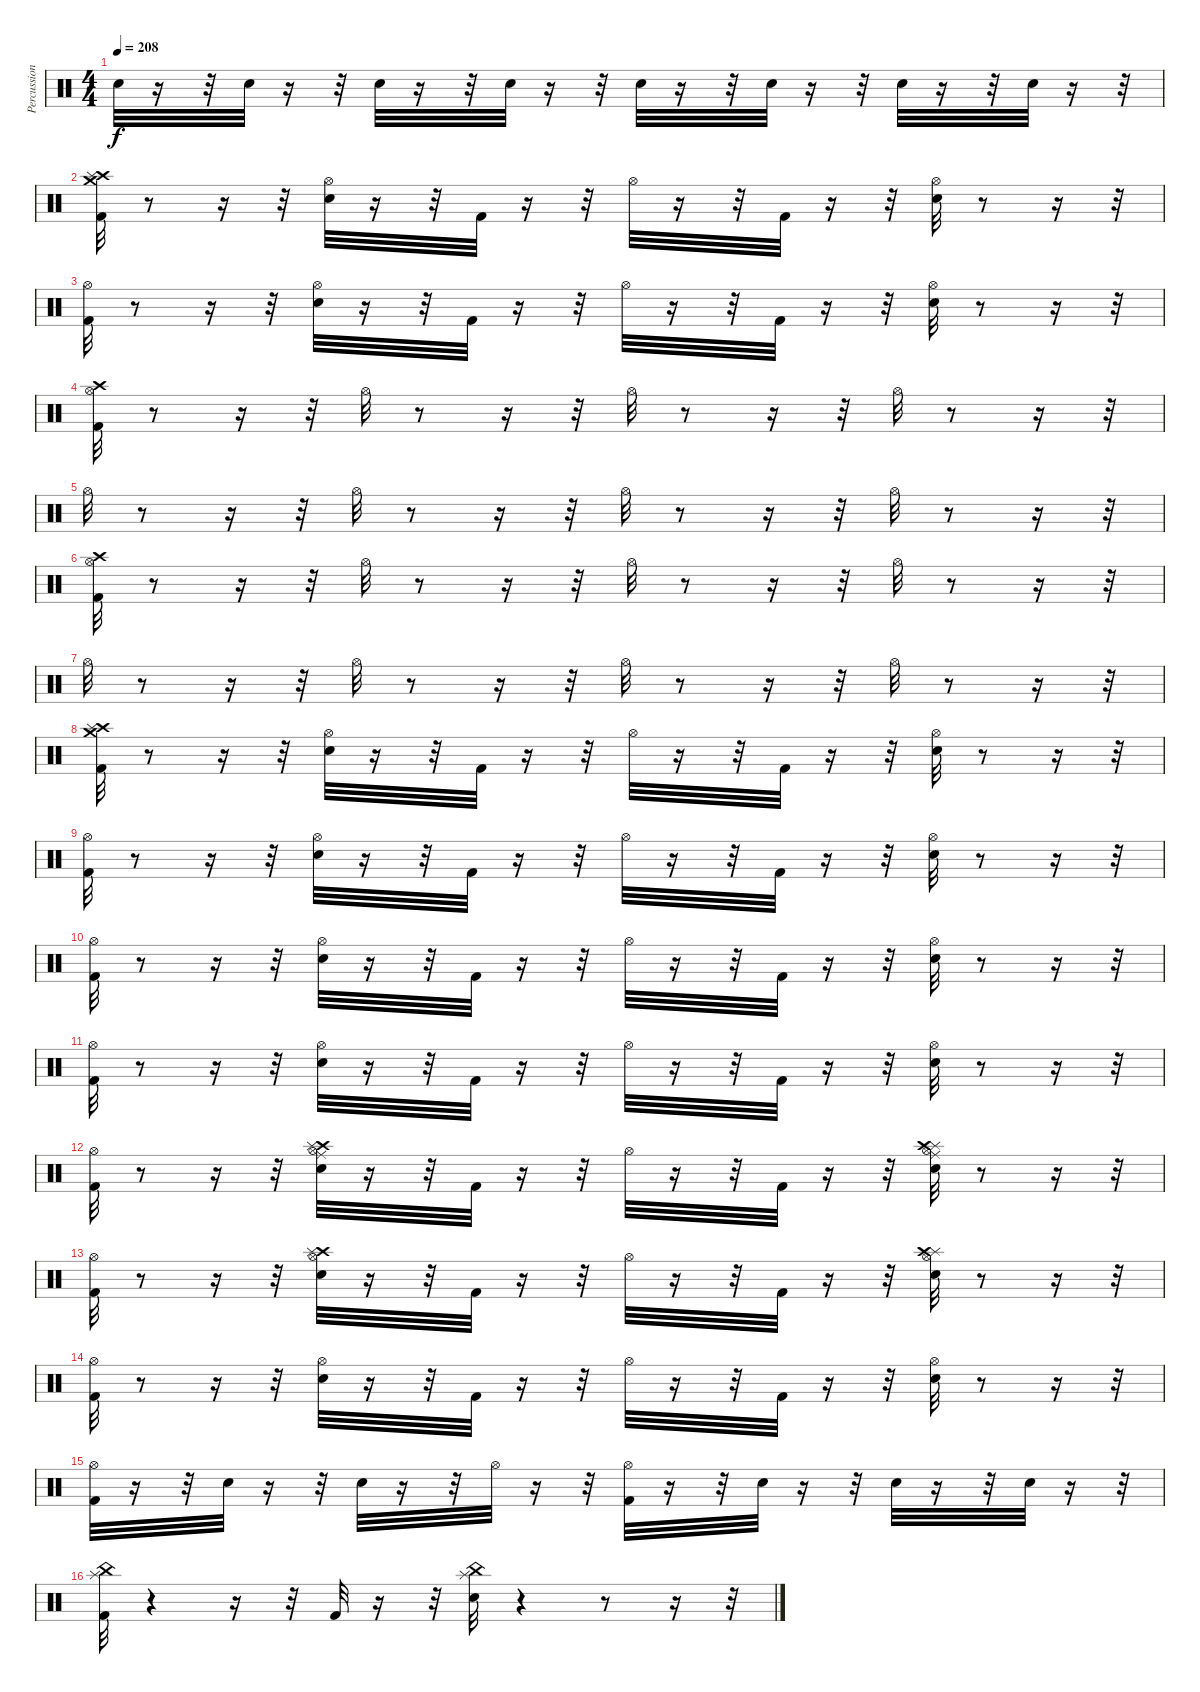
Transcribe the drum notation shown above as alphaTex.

\track ("Percussion" "Percussion") {instrument percussion}
\staff {score}
\articulation defaults
\ts (4 4)
\tempo 208
\clef neutral
\ks c "Snare (hit) 2".32{dy f}
r.16 r.32 "Snare (hit) 2".32 r.16 r.32 "Snare (hit) 2".32 r.16 r.32 "Snare (hit) 2".32 r.16 r.32 "Snare (hit) 2".32 r.16 r.32 "Snare (hit) 2".32 r.16 r.32 "Snare (hit) 2".32 r.16 r.32 "Snare (hit) 2".32 r.16 r.32 |
("Kick (hit) 2" "Crash high (hit)" "Crash medium (hit)" "Splash (hit)").32 r.8 r.16 r.32 ("Snare (hit) 2" "Hi-Hat (open)").32 r.16 r.32 "Kick (hit) 2".32 r.16 r.32 "Hi-Hat (open)".32 r.16 r.32 "Kick (hit) 2".32 r.16 r.32 ("Snare (hit) 2" "Hi-Hat (open)").32 r.8 r.16 r.32 |
("Kick (hit) 2" "Hi-Hat (open)").32 r.8 r.16 r.32 ("Snare (hit) 2" "Hi-Hat (open)").32 r.16 r.32 "Kick (hit) 2".32 r.16 r.32 "Hi-Hat (open)".32 r.16 r.32 "Kick (hit) 2".32 r.16 r.32 ("Snare (hit) 2" "Hi-Hat (open)").32 r.8 r.16 r.32 |
("Hi-Hat (open)" "Crash high (hit)" "Kick (hit) 2").32 r.8 r.16 r.32 "Hi-Hat (open)".32 r.8 r.16 r.32 "Hi-Hat (open)".32 r.8 r.16 r.32 "Hi-Hat (open)".32 r.8 r.16 r.32 |
"Hi-Hat (open)".32 r.8 r.16 r.32 "Hi-Hat (open)".32 r.8 r.16 r.32 "Hi-Hat (open)".32 r.8 r.16 r.32 "Hi-Hat (open)".32 r.8 r.16 r.32 |
("Hi-Hat (open)" "Crash high (hit)" "Kick (hit) 2").32 r.8 r.16 r.32 "Hi-Hat (open)".32 r.8 r.16 r.32 "Hi-Hat (open)".32 r.8 r.16 r.32 "Hi-Hat (open)".32 r.8 r.16 r.32 |
"Hi-Hat (open)".32 r.8 r.16 r.32 "Hi-Hat (open)".32 r.8 r.16 r.32 "Hi-Hat (open)".32 r.8 r.16 r.32 "Hi-Hat (open)".32 r.8 r.16 r.32 |
("Kick (hit) 2" "Crash high (hit)" "Crash medium (hit)" "Splash (hit)").32 r.8 r.16 r.32 ("Snare (hit) 2" "Hi-Hat (open)").32 r.16 r.32 "Kick (hit) 2".32 r.16 r.32 "Hi-Hat (open)".32 r.16 r.32 "Kick (hit) 2".32 r.16 r.32 ("Snare (hit) 2" "Hi-Hat (open)").32 r.8 r.16 r.32 |
("Kick (hit) 2" "Hi-Hat (open)").32 r.8 r.16 r.32 ("Snare (hit) 2" "Hi-Hat (open)").32 r.16 r.32 "Kick (hit) 2".32 r.16 r.32 "Hi-Hat (open)".32 r.16 r.32 "Kick (hit) 2".32 r.16 r.32 ("Snare (hit) 2" "Hi-Hat (open)").32 r.8 r.16 r.32 |
("Kick (hit) 2" "Hi-Hat (open)").32 r.8 r.16 r.32 ("Snare (hit) 2" "Hi-Hat (open)").32 r.16 r.32 "Kick (hit) 2".32 r.16 r.32 "Hi-Hat (open)".32 r.16 r.32 "Kick (hit) 2".32 r.16 r.32 ("Snare (hit) 2" "Hi-Hat (open)").32 r.8 r.16 r.32 |
("Kick (hit) 2" "Hi-Hat (open)").32 r.8 r.16 r.32 ("Snare (hit) 2" "Hi-Hat (open)").32 r.16 r.32 "Kick (hit) 2".32 r.16 r.32 "Hi-Hat (open)".32 r.16 r.32 "Kick (hit) 2".32 r.16 r.32 ("Snare (hit) 2" "Hi-Hat (open)").32 r.8 r.16 r.32 |
("Kick (hit) 2" "Hi-Hat (open)").32 r.8 r.16 r.32 ("Ride (middle)" "Crash high (hit)" "Splash (hit)" "Snare (hit) 2" "Hi-Hat (open)").32 r.16 r.32 "Kick (hit) 2".32 r.16 r.32 "Hi-Hat (open)".32 r.16 r.32 "Kick (hit) 2".32 r.16 r.32 ("Splash (hit)" "Ride (middle)" "Crash high (hit)" "Snare (hit) 2" "Hi-Hat (open)").32 r.8 r.16 r.32 |
("Kick (hit) 2" "Hi-Hat (open)").32 r.8 r.16 r.32 ("Crash high (hit)" "Splash (hit)" "Snare (hit) 2" "Hi-Hat (open)").32 r.16 r.32 "Kick (hit) 2".32 r.16 r.32 "Hi-Hat (open)".32 r.16 r.32 "Kick (hit) 2".32 r.16 r.32 ("Splash (hit)" "Crash high (hit)" "Snare (hit) 2" "Hi-Hat (open)").32 r.8 r.16 r.32 |
("Kick (hit) 2" "Hi-Hat (open)").32 r.8 r.16 r.32 ("Snare (hit) 2" "Hi-Hat (open)").32 r.16 r.32 "Kick (hit) 2".32 r.16 r.32 "Hi-Hat (open)".32 r.16 r.32 "Kick (hit) 2".32 r.16 r.32 ("Snare (hit) 2" "Hi-Hat (open)").32 r.8 r.16 r.32 |
("Kick (hit) 2" "Hi-Hat (open)").32 r.16 r.32 "Snare (hit) 2".32 r.16 r.32 "Snare (hit) 2".32 r.16 r.32 "Hi-Hat (open)".32 r.16 r.32 ("Kick (hit) 2" "Hi-Hat (open)").32 r.16 r.32 "Snare (hit) 2".32 r.16 r.32 "Snare (hit) 2".32 r.16 r.32 "Snare (hit) 2".32 r.16 r.32 |
("Kick (hit) 2" "China (hit)" "Splash (hit)").32 r.4 r.16 r.32 "Kick (hit) 2".32 r.16 r.32 ("Snare (hit) 2" "China (hit)" "Splash (hit)").32 r.4 r.8 r.16 r.32
